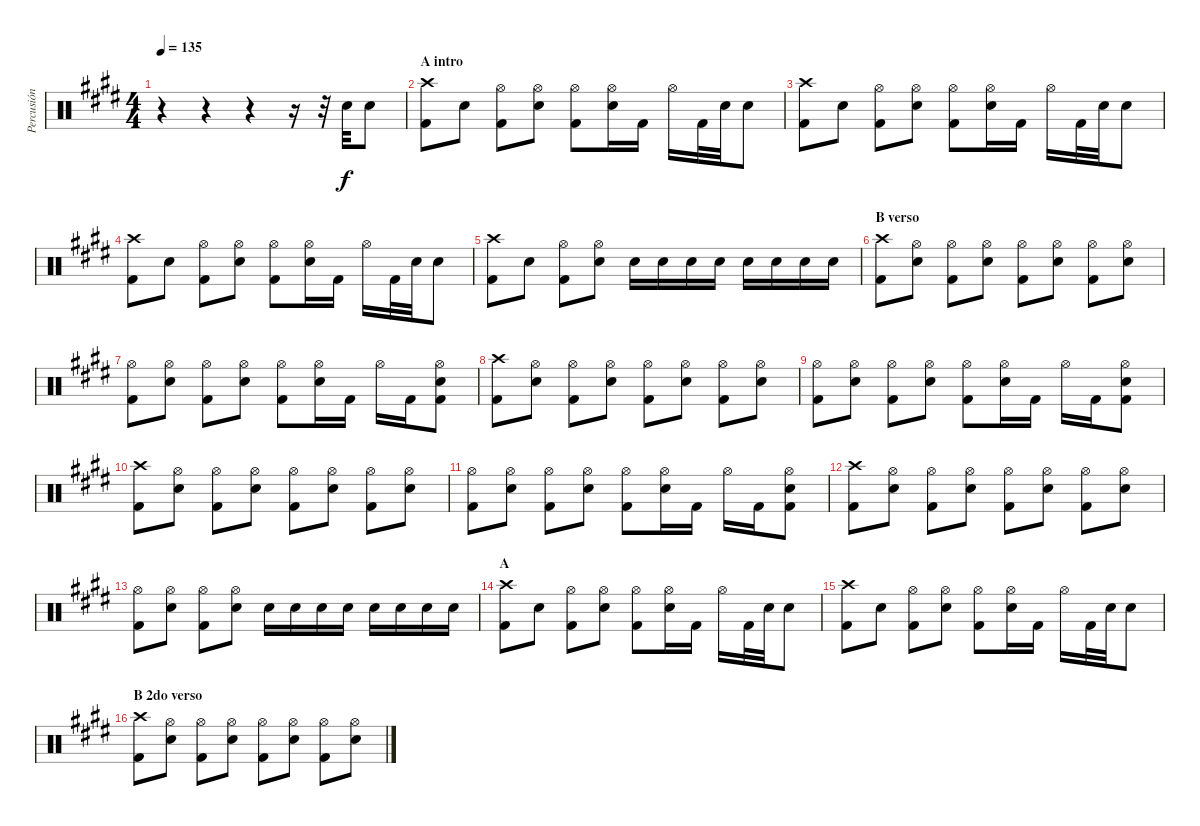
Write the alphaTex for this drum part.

\track ("Percusión" "Percusión") {instrument percussion}
\staff {score}
\articulation defaults
\ts (4 4)
\tempo 135
\clef neutral
\ks e
r.4{dy f} r.4 r.4 r.16 r.32 "Electric Snare (hit)".32 "Electric Snare (hit)".8 |
\section ("" "A intro")
("Crash high (hit)" "Kick (hit) 2").8 "Electric Snare (hit)".8 ("Hi-Hat (open)" "Kick (hit) 2").8 ("Hi-Hat (open)" "Electric Snare (hit)").8 ("Hi-Hat (open)" "Kick (hit) 2").8 ("Hi-Hat (open)" "Electric Snare (hit)").16 "Kick (hit) 2".16 "Hi-Hat (open)".16 "Kick (hit) 2".32 "Electric Snare (hit)".32 "Electric Snare (hit)".8 |
("Crash high (hit)" "Kick (hit) 2").8 "Electric Snare (hit)".8 ("Hi-Hat (open)" "Kick (hit) 2").8 ("Hi-Hat (open)" "Electric Snare (hit)").8 ("Hi-Hat (open)" "Kick (hit) 2").8 ("Hi-Hat (open)" "Electric Snare (hit)").16 "Kick (hit) 2".16 "Hi-Hat (open)".16 "Kick (hit) 2".32 "Electric Snare (hit)".32 "Electric Snare (hit)".8 |
("Crash high (hit)" "Kick (hit) 2").8 "Electric Snare (hit)".8 ("Hi-Hat (open)" "Kick (hit) 2").8 ("Hi-Hat (open)" "Electric Snare (hit)").8 ("Hi-Hat (open)" "Kick (hit) 2").8 ("Hi-Hat (open)" "Electric Snare (hit)").16 "Kick (hit) 2".16 "Hi-Hat (open)".16 "Kick (hit) 2".32 "Electric Snare (hit)".32 "Electric Snare (hit)".8 |
("Crash high (hit)" "Kick (hit) 2").8 "Electric Snare (hit)".8 ("Hi-Hat (open)" "Kick (hit) 2").8 ("Hi-Hat (open)" "Electric Snare (hit)").8 "Electric Snare (hit)".16 "Electric Snare (hit)".16 "Electric Snare (hit)".16 "Electric Snare (hit)".16 "Electric Snare (hit)".16 "Electric Snare (hit)".16 "Electric Snare (hit)".16 "Electric Snare (hit)".16 |
\section ("" "B verso")
("Crash high (hit)" "Kick (hit) 2").8 ("Hi-Hat (open)" "Electric Snare (hit)").8 ("Hi-Hat (open)" "Kick (hit) 2").8 ("Hi-Hat (open)" "Electric Snare (hit)").8 ("Hi-Hat (open)" "Kick (hit) 2").8 ("Hi-Hat (open)" "Electric Snare (hit)").8 ("Hi-Hat (open)" "Kick (hit) 2").8 ("Hi-Hat (open)" "Electric Snare (hit)").8 |
("Hi-Hat (open)" "Kick (hit) 2").8 ("Hi-Hat (open)" "Electric Snare (hit)").8 ("Hi-Hat (open)" "Kick (hit) 2").8 ("Hi-Hat (open)" "Electric Snare (hit)").8 ("Hi-Hat (open)" "Kick (hit) 2").8 ("Hi-Hat (open)" "Electric Snare (hit)").16 "Kick (hit) 2".16 "Hi-Hat (open)".16 "Kick (hit) 2".16 ("Hi-Hat (open)" "Electric Snare (hit)" "Kick (hit) 2").8 |
("Crash high (hit)" "Kick (hit) 2").8 ("Hi-Hat (open)" "Electric Snare (hit)").8 ("Hi-Hat (open)" "Kick (hit) 2").8 ("Hi-Hat (open)" "Electric Snare (hit)").8 ("Hi-Hat (open)" "Kick (hit) 2").8 ("Hi-Hat (open)" "Electric Snare (hit)").8 ("Hi-Hat (open)" "Kick (hit) 2").8 ("Hi-Hat (open)" "Electric Snare (hit)").8 |
("Hi-Hat (open)" "Kick (hit) 2").8 ("Hi-Hat (open)" "Electric Snare (hit)").8 ("Hi-Hat (open)" "Kick (hit) 2").8 ("Hi-Hat (open)" "Electric Snare (hit)").8 ("Hi-Hat (open)" "Kick (hit) 2").8 ("Hi-Hat (open)" "Electric Snare (hit)").16 "Kick (hit) 2".16 "Hi-Hat (open)".16 "Kick (hit) 2".16 ("Hi-Hat (open)" "Electric Snare (hit)" "Kick (hit) 2").8 |
("Crash high (hit)" "Kick (hit) 2").8 ("Hi-Hat (open)" "Electric Snare (hit)").8 ("Hi-Hat (open)" "Kick (hit) 2").8 ("Hi-Hat (open)" "Electric Snare (hit)").8 ("Hi-Hat (open)" "Kick (hit) 2").8 ("Hi-Hat (open)" "Electric Snare (hit)").8 ("Hi-Hat (open)" "Kick (hit) 2").8 ("Hi-Hat (open)" "Electric Snare (hit)").8 |
("Hi-Hat (open)" "Kick (hit) 2").8 ("Hi-Hat (open)" "Electric Snare (hit)").8 ("Hi-Hat (open)" "Kick (hit) 2").8 ("Hi-Hat (open)" "Electric Snare (hit)").8 ("Hi-Hat (open)" "Kick (hit) 2").8 ("Hi-Hat (open)" "Electric Snare (hit)").16 "Kick (hit) 2".16 "Hi-Hat (open)".16 "Kick (hit) 2".16 ("Hi-Hat (open)" "Electric Snare (hit)" "Kick (hit) 2").8 |
("Crash high (hit)" "Kick (hit) 2").8 ("Hi-Hat (open)" "Electric Snare (hit)").8 ("Hi-Hat (open)" "Kick (hit) 2").8 ("Hi-Hat (open)" "Electric Snare (hit)").8 ("Hi-Hat (open)" "Kick (hit) 2").8 ("Hi-Hat (open)" "Electric Snare (hit)").8 ("Hi-Hat (open)" "Kick (hit) 2").8 ("Hi-Hat (open)" "Electric Snare (hit)").8 |
("Hi-Hat (open)" "Kick (hit) 2").8 ("Hi-Hat (open)" "Electric Snare (hit)").8 ("Hi-Hat (open)" "Kick (hit) 2").8 ("Hi-Hat (open)" "Electric Snare (hit)").8 "Electric Snare (hit)".16 "Electric Snare (hit)".16 "Electric Snare (hit)".16 "Electric Snare (hit)".16 "Electric Snare (hit)".16 "Electric Snare (hit)".16 "Electric Snare (hit)".16 "Electric Snare (hit)".16 |
\section ("" "A")
("Crash high (hit)" "Kick (hit) 2").8 "Electric Snare (hit)".8 ("Hi-Hat (open)" "Kick (hit) 2").8 ("Hi-Hat (open)" "Electric Snare (hit)").8 ("Hi-Hat (open)" "Kick (hit) 2").8 ("Hi-Hat (open)" "Electric Snare (hit)").16 "Kick (hit) 2".16 "Hi-Hat (open)".16 "Kick (hit) 2".32 "Electric Snare (hit)".32 "Electric Snare (hit)".8 |
("Crash high (hit)" "Kick (hit) 2").8 "Electric Snare (hit)".8 ("Hi-Hat (open)" "Kick (hit) 2").8 ("Hi-Hat (open)" "Electric Snare (hit)").8 ("Hi-Hat (open)" "Kick (hit) 2").8 ("Hi-Hat (open)" "Electric Snare (hit)").16 "Kick (hit) 2".16 "Hi-Hat (open)".16 "Kick (hit) 2".32 "Electric Snare (hit)".32 "Electric Snare (hit)".8 |
\section ("" "B 2do verso ")
("Crash high (hit)" "Kick (hit) 2").8 ("Hi-Hat (open)" "Electric Snare (hit)").8 ("Hi-Hat (open)" "Kick (hit) 2").8 ("Hi-Hat (open)" "Electric Snare (hit)").8 ("Hi-Hat (open)" "Kick (hit) 2").8 ("Hi-Hat (open)" "Electric Snare (hit)").8 ("Hi-Hat (open)" "Kick (hit) 2").8 ("Hi-Hat (open)" "Electric Snare (hit)").8
